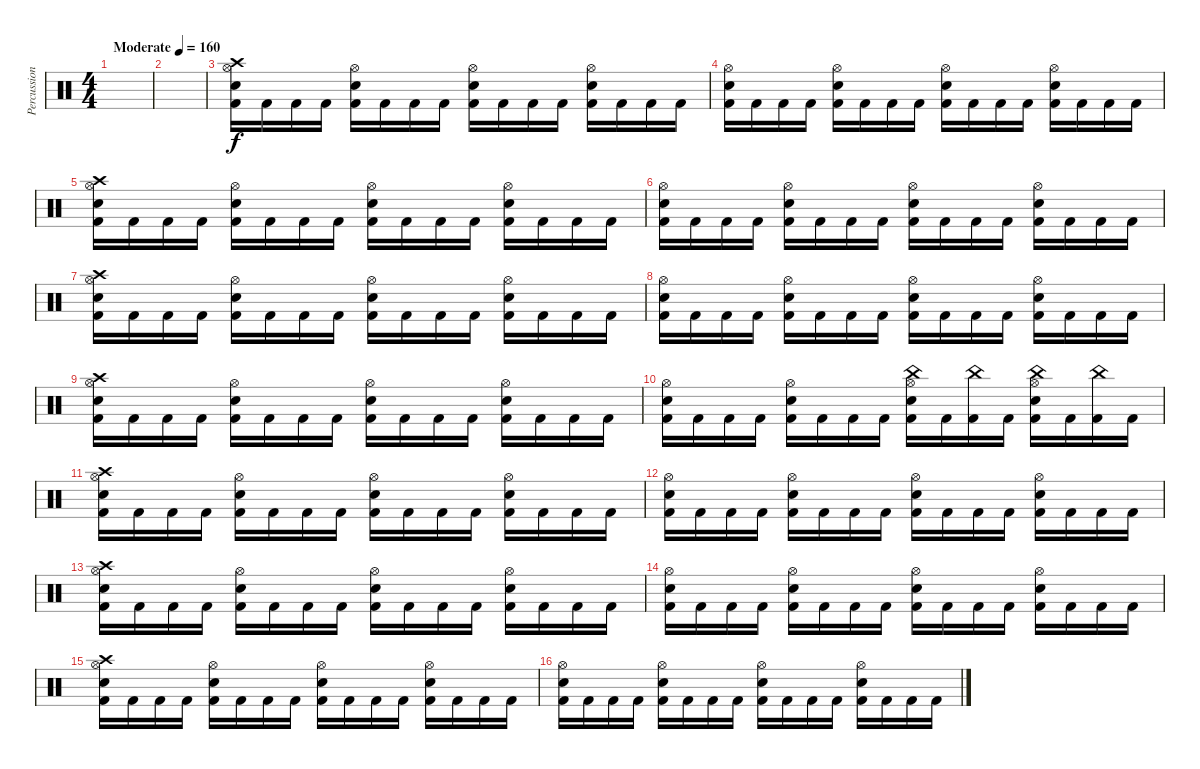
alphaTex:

\track ("Percussion" "Percussion") {instrument percussion}
\staff {score}
\articulation defaults
\ts (4 4)
\tempo (160 "Moderate")
\clef neutral
\ks c
|
|
("Kick (hit) 2" "Crash high (hit)" "Electric Snare (hit)" "Hi-Hat (open)").16 "Kick (hit) 2".16 "Kick (hit) 2".16 "Kick (hit) 2".16 ("Kick (hit) 2" "Electric Snare (hit)" "Hi-Hat (open)").16 "Kick (hit) 2".16 "Kick (hit) 2".16 "Kick (hit) 2".16 ("Kick (hit) 2" "Electric Snare (hit)" "Hi-Hat (open)").16 "Kick (hit) 2".16 "Kick (hit) 2".16 "Kick (hit) 2".16 ("Kick (hit) 2" "Electric Snare (hit)" "Hi-Hat (open)").16 "Kick (hit) 2".16 "Kick (hit) 2".16 "Kick (hit) 2".16 |
("Kick (hit) 2" "Electric Snare (hit)" "Hi-Hat (open)").16 "Kick (hit) 2".16 "Kick (hit) 2".16 "Kick (hit) 2".16 ("Kick (hit) 2" "Electric Snare (hit)" "Hi-Hat (open)").16 "Kick (hit) 2".16 "Kick (hit) 2".16 "Kick (hit) 2".16 ("Kick (hit) 2" "Electric Snare (hit)" "Hi-Hat (open)").16 "Kick (hit) 2".16 "Kick (hit) 2".16 "Kick (hit) 2".16 ("Kick (hit) 2" "Electric Snare (hit)" "Hi-Hat (open)").16 "Kick (hit) 2".16 "Kick (hit) 2".16 "Kick (hit) 2".16 |
("Kick (hit) 2" "Crash high (hit)" "Electric Snare (hit)" "Hi-Hat (open)").16 "Kick (hit) 2".16 "Kick (hit) 2".16 "Kick (hit) 2".16 ("Kick (hit) 2" "Electric Snare (hit)" "Hi-Hat (open)").16 "Kick (hit) 2".16 "Kick (hit) 2".16 "Kick (hit) 2".16 ("Kick (hit) 2" "Electric Snare (hit)" "Hi-Hat (open)").16 "Kick (hit) 2".16 "Kick (hit) 2".16 "Kick (hit) 2".16 ("Kick (hit) 2" "Electric Snare (hit)" "Hi-Hat (open)").16 "Kick (hit) 2".16 "Kick (hit) 2".16 "Kick (hit) 2".16 |
("Kick (hit) 2" "Electric Snare (hit)" "Hi-Hat (open)").16 "Kick (hit) 2".16 "Kick (hit) 2".16 "Kick (hit) 2".16 ("Kick (hit) 2" "Electric Snare (hit)" "Hi-Hat (open)").16 "Kick (hit) 2".16 "Kick (hit) 2".16 "Kick (hit) 2".16 ("Kick (hit) 2" "Electric Snare (hit)" "Hi-Hat (open)").16 "Kick (hit) 2".16 "Kick (hit) 2".16 "Kick (hit) 2".16 ("Kick (hit) 2" "Electric Snare (hit)" "Hi-Hat (open)").16 "Kick (hit) 2".16 "Kick (hit) 2".16 "Kick (hit) 2".16 |
("Kick (hit) 2" "Crash high (hit)" "Electric Snare (hit)" "Hi-Hat (open)").16 "Kick (hit) 2".16 "Kick (hit) 2".16 "Kick (hit) 2".16 ("Kick (hit) 2" "Electric Snare (hit)" "Hi-Hat (open)").16 "Kick (hit) 2".16 "Kick (hit) 2".16 "Kick (hit) 2".16 ("Kick (hit) 2" "Electric Snare (hit)" "Hi-Hat (open)").16 "Kick (hit) 2".16 "Kick (hit) 2".16 "Kick (hit) 2".16 ("Kick (hit) 2" "Electric Snare (hit)" "Hi-Hat (open)").16 "Kick (hit) 2".16 "Kick (hit) 2".16 "Kick (hit) 2".16 |
("Kick (hit) 2" "Electric Snare (hit)" "Hi-Hat (open)").16 "Kick (hit) 2".16 "Kick (hit) 2".16 "Kick (hit) 2".16 ("Kick (hit) 2" "Electric Snare (hit)" "Hi-Hat (open)").16 "Kick (hit) 2".16 "Kick (hit) 2".16 "Kick (hit) 2".16 ("Kick (hit) 2" "Electric Snare (hit)" "Hi-Hat (open)").16 "Kick (hit) 2".16 "Kick (hit) 2".16 "Kick (hit) 2".16 ("Kick (hit) 2" "Electric Snare (hit)" "Hi-Hat (open)").16 "Kick (hit) 2".16 "Kick (hit) 2".16 "Kick (hit) 2".16 |
("Kick (hit) 2" "Crash high (hit)" "Electric Snare (hit)" "Hi-Hat (open)").16 "Kick (hit) 2".16 "Kick (hit) 2".16 "Kick (hit) 2".16 ("Kick (hit) 2" "Electric Snare (hit)" "Hi-Hat (open)").16 "Kick (hit) 2".16 "Kick (hit) 2".16 "Kick (hit) 2".16 ("Kick (hit) 2" "Electric Snare (hit)" "Hi-Hat (open)").16 "Kick (hit) 2".16 "Kick (hit) 2".16 "Kick (hit) 2".16 ("Kick (hit) 2" "Electric Snare (hit)" "Hi-Hat (open)").16 "Kick (hit) 2".16 "Kick (hit) 2".16 "Kick (hit) 2".16 |
("Kick (hit) 2" "Electric Snare (hit)" "Hi-Hat (open)").16 "Kick (hit) 2".16 "Kick (hit) 2".16 "Kick (hit) 2".16 ("Kick (hit) 2" "Electric Snare (hit)" "Hi-Hat (open)").16 "Kick (hit) 2".16 "Kick (hit) 2".16 "Kick (hit) 2".16 ("Kick (hit) 2" "China (hit)" "Electric Snare (hit)" "Hi-Hat (open)").16 "Kick (hit) 2".16 ("Kick (hit) 2" "China (hit)").16 "Kick (hit) 2".16 ("Kick (hit) 2" "China (hit)" "Electric Snare (hit)" "Hi-Hat (open)").16 "Kick (hit) 2".16 ("Kick (hit) 2" "China (hit)").16 "Kick (hit) 2".16 |
("Kick (hit) 2" "Crash high (hit)" "Electric Snare (hit)" "Hi-Hat (open)").16 "Kick (hit) 2".16 "Kick (hit) 2".16 "Kick (hit) 2".16 ("Kick (hit) 2" "Electric Snare (hit)" "Hi-Hat (open)").16 "Kick (hit) 2".16 "Kick (hit) 2".16 "Kick (hit) 2".16 ("Kick (hit) 2" "Electric Snare (hit)" "Hi-Hat (open)").16 "Kick (hit) 2".16 "Kick (hit) 2".16 "Kick (hit) 2".16 ("Kick (hit) 2" "Electric Snare (hit)" "Hi-Hat (open)").16 "Kick (hit) 2".16 "Kick (hit) 2".16 "Kick (hit) 2".16 |
("Kick (hit) 2" "Electric Snare (hit)" "Hi-Hat (open)").16 "Kick (hit) 2".16 "Kick (hit) 2".16 "Kick (hit) 2".16 ("Kick (hit) 2" "Electric Snare (hit)" "Hi-Hat (open)").16 "Kick (hit) 2".16 "Kick (hit) 2".16 "Kick (hit) 2".16 ("Kick (hit) 2" "Electric Snare (hit)" "Hi-Hat (open)").16 "Kick (hit) 2".16 "Kick (hit) 2".16 "Kick (hit) 2".16 ("Kick (hit) 2" "Electric Snare (hit)" "Hi-Hat (open)").16 "Kick (hit) 2".16 "Kick (hit) 2".16 "Kick (hit) 2".16 |
("Kick (hit) 2" "Crash high (hit)" "Electric Snare (hit)" "Hi-Hat (open)").16 "Kick (hit) 2".16 "Kick (hit) 2".16 "Kick (hit) 2".16 ("Kick (hit) 2" "Electric Snare (hit)" "Hi-Hat (open)").16 "Kick (hit) 2".16 "Kick (hit) 2".16 "Kick (hit) 2".16 ("Kick (hit) 2" "Electric Snare (hit)" "Hi-Hat (open)").16 "Kick (hit) 2".16 "Kick (hit) 2".16 "Kick (hit) 2".16 ("Kick (hit) 2" "Electric Snare (hit)" "Hi-Hat (open)").16 "Kick (hit) 2".16 "Kick (hit) 2".16 "Kick (hit) 2".16 |
("Kick (hit) 2" "Electric Snare (hit)" "Hi-Hat (open)").16 "Kick (hit) 2".16 "Kick (hit) 2".16 "Kick (hit) 2".16 ("Kick (hit) 2" "Electric Snare (hit)" "Hi-Hat (open)").16 "Kick (hit) 2".16 "Kick (hit) 2".16 "Kick (hit) 2".16 ("Kick (hit) 2" "Electric Snare (hit)" "Hi-Hat (open)").16 "Kick (hit) 2".16 "Kick (hit) 2".16 "Kick (hit) 2".16 ("Kick (hit) 2" "Electric Snare (hit)" "Hi-Hat (open)").16 "Kick (hit) 2".16 "Kick (hit) 2".16 "Kick (hit) 2".16 |
("Kick (hit) 2" "Crash high (hit)" "Electric Snare (hit)" "Hi-Hat (open)").16 "Kick (hit) 2".16 "Kick (hit) 2".16 "Kick (hit) 2".16 ("Kick (hit) 2" "Electric Snare (hit)" "Hi-Hat (open)").16 "Kick (hit) 2".16 "Kick (hit) 2".16 "Kick (hit) 2".16 ("Kick (hit) 2" "Electric Snare (hit)" "Hi-Hat (open)").16 "Kick (hit) 2".16 "Kick (hit) 2".16 "Kick (hit) 2".16 ("Kick (hit) 2" "Electric Snare (hit)" "Hi-Hat (open)").16 "Kick (hit) 2".16 "Kick (hit) 2".16 "Kick (hit) 2".16 |
("Kick (hit) 2" "Electric Snare (hit)" "Hi-Hat (open)").16 "Kick (hit) 2".16 "Kick (hit) 2".16 "Kick (hit) 2".16 ("Kick (hit) 2" "Electric Snare (hit)" "Hi-Hat (open)").16 "Kick (hit) 2".16 "Kick (hit) 2".16 "Kick (hit) 2".16 ("Kick (hit) 2" "Electric Snare (hit)" "Hi-Hat (open)").16 "Kick (hit) 2".16 "Kick (hit) 2".16 "Kick (hit) 2".16 ("Kick (hit) 2" "Electric Snare (hit)" "Hi-Hat (open)").16 "Kick (hit) 2".16 "Kick (hit) 2".16 "Kick (hit) 2".16
